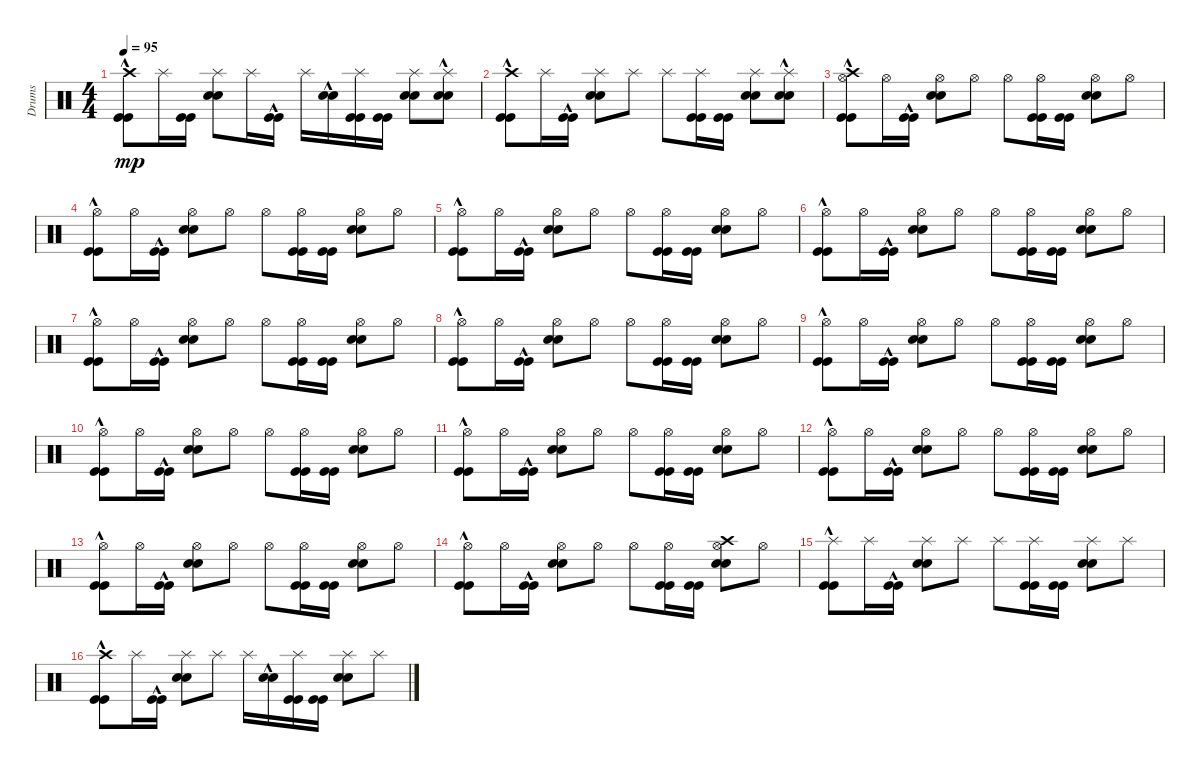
\track ("Drums" "Drums") {instrument percussion}
\staff {score}
\articulation defaults
\ts (4 4)
\tempo 95
\clef neutral
\ks c
("Kick (hit)"{hac} "Kick (hit)"{hac} "Crash high (hit)").8{dy mp} "Splash (hit)".16 ("Kick (hit)" "Kick (hit)").16 ("Snare (hit) 2" "Snare (hit) 2" "Splash (hit)").8 "Splash (hit)".16 ("Kick (hit)"{hac} "Kick (hit)"{hac}).16 "Splash (hit)".16 ("Snare (hit) 2"{hac} "Snare (hit) 2"{hac}).16 ("Kick (hit)" "Kick (hit)" "Splash (hit)").16 ("Kick (hit)" "Kick (hit)").16 ("Snare (hit) 2" "Snare (hit) 2" "Splash (hit)").8 ("Snare (hit) 2"{hac} "Snare (hit) 2"{hac} "Splash (hit)").8 |
("Kick (hit)"{hac} "Kick (hit)"{hac} "Crash high (hit)").8 "Splash (hit)".16 ("Kick (hit)"{hac} "Kick (hit)"{hac}).16 ("Snare (hit) 2" "Snare (hit) 2" "Splash (hit)").8 "Splash (hit)".8 "Splash (hit)".8 ("Kick (hit)" "Kick (hit)" "Splash (hit)").16 ("Kick (hit)" "Kick (hit)").16 ("Snare (hit) 2" "Snare (hit) 2" "Splash (hit)").8 ("Snare (hit) 2"{hac} "Snare (hit) 2"{hac} "Splash (hit)").8 |
("Kick (hit)"{hac} "Kick (hit)"{hac} "Hi-Hat (open)" "Crash high (hit)").8 "Hi-Hat (open)".16 ("Kick (hit)"{hac} "Kick (hit)"{hac}).16 ("Snare (hit) 2" "Snare (hit) 2" "Hi-Hat (open)").8 "Hi-Hat (open)".8 "Hi-Hat (open)".8 ("Kick (hit)" "Kick (hit)" "Hi-Hat (open)").16 ("Kick (hit)" "Kick (hit)").16 ("Snare (hit) 2" "Snare (hit) 2" "Hi-Hat (open)").8 "Hi-Hat (open)".8 |
("Kick (hit)"{hac} "Kick (hit)"{hac} "Hi-Hat (open)").8 "Hi-Hat (open)".16 ("Kick (hit)"{hac} "Kick (hit)"{hac}).16 ("Snare (hit) 2" "Snare (hit) 2" "Hi-Hat (open)").8 "Hi-Hat (open)".8 "Hi-Hat (open)".8 ("Kick (hit)" "Kick (hit)" "Hi-Hat (open)").16 ("Kick (hit)" "Kick (hit)").16 ("Snare (hit) 2" "Snare (hit) 2" "Hi-Hat (open)").8 "Hi-Hat (open)".8 |
("Kick (hit)"{hac} "Kick (hit)"{hac} "Hi-Hat (open)").8 "Hi-Hat (open)".16 ("Kick (hit)"{hac} "Kick (hit)"{hac}).16 ("Snare (hit) 2" "Snare (hit) 2" "Hi-Hat (open)").8 "Hi-Hat (open)".8 "Hi-Hat (open)".8 ("Kick (hit)" "Kick (hit)" "Hi-Hat (open)").16 ("Kick (hit)" "Kick (hit)").16 ("Snare (hit) 2" "Snare (hit) 2" "Hi-Hat (open)").8 "Hi-Hat (open)".8 |
("Kick (hit)"{hac} "Kick (hit)"{hac} "Hi-Hat (open)").8 "Hi-Hat (open)".16 ("Kick (hit)"{hac} "Kick (hit)"{hac}).16 ("Snare (hit) 2" "Snare (hit) 2" "Hi-Hat (open)").8 "Hi-Hat (open)".8 "Hi-Hat (open)".8 ("Kick (hit)" "Kick (hit)" "Hi-Hat (open)").16 ("Kick (hit)" "Kick (hit)").16 ("Snare (hit) 2" "Snare (hit) 2" "Hi-Hat (open)").8 "Hi-Hat (open)".8 |
("Kick (hit)"{hac} "Kick (hit)"{hac} "Hi-Hat (open)").8 "Hi-Hat (open)".16 ("Kick (hit)"{hac} "Kick (hit)"{hac}).16 ("Snare (hit) 2" "Snare (hit) 2" "Hi-Hat (open)").8 "Hi-Hat (open)".8 "Hi-Hat (open)".8 ("Kick (hit)" "Kick (hit)" "Hi-Hat (open)").16 ("Kick (hit)" "Kick (hit)").16 ("Snare (hit) 2" "Snare (hit) 2" "Hi-Hat (open)").8 "Hi-Hat (open)".8 |
("Kick (hit)"{hac} "Kick (hit)"{hac} "Hi-Hat (open)").8 "Hi-Hat (open)".16 ("Kick (hit)"{hac} "Kick (hit)"{hac}).16 ("Snare (hit) 2" "Snare (hit) 2" "Hi-Hat (open)").8 "Hi-Hat (open)".8 "Hi-Hat (open)".8 ("Kick (hit)" "Kick (hit)" "Hi-Hat (open)").16 ("Kick (hit)" "Kick (hit)").16 ("Snare (hit) 2" "Snare (hit) 2" "Hi-Hat (open)").8 "Hi-Hat (open)".8 |
("Kick (hit)"{hac} "Kick (hit)"{hac} "Hi-Hat (open)").8 "Hi-Hat (open)".16 ("Kick (hit)"{hac} "Kick (hit)"{hac}).16 ("Snare (hit) 2" "Snare (hit) 2" "Hi-Hat (open)").8 "Hi-Hat (open)".8 "Hi-Hat (open)".8 ("Kick (hit)" "Kick (hit)" "Hi-Hat (open)").16 ("Kick (hit)" "Kick (hit)").16 ("Snare (hit) 2" "Snare (hit) 2" "Hi-Hat (open)").8 "Hi-Hat (open)".8 |
("Kick (hit)"{hac} "Kick (hit)"{hac} "Hi-Hat (open)").8 "Hi-Hat (open)".16 ("Kick (hit)"{hac} "Kick (hit)"{hac}).16 ("Snare (hit) 2" "Snare (hit) 2" "Hi-Hat (open)").8 "Hi-Hat (open)".8 "Hi-Hat (open)".8 ("Kick (hit)" "Kick (hit)" "Hi-Hat (open)").16 ("Kick (hit)" "Kick (hit)").16 ("Snare (hit) 2" "Snare (hit) 2" "Hi-Hat (open)").8 "Hi-Hat (open)".8 |
("Kick (hit)"{hac} "Kick (hit)"{hac} "Hi-Hat (open)").8 "Hi-Hat (open)".16 ("Kick (hit)"{hac} "Kick (hit)"{hac}).16 ("Snare (hit) 2" "Snare (hit) 2" "Hi-Hat (open)").8 "Hi-Hat (open)".8 "Hi-Hat (open)".8 ("Kick (hit)" "Kick (hit)" "Hi-Hat (open)").16 ("Kick (hit)" "Kick (hit)").16 ("Snare (hit) 2" "Snare (hit) 2" "Hi-Hat (open)").8 "Hi-Hat (open)".8 |
("Kick (hit)"{hac} "Kick (hit)"{hac} "Hi-Hat (open)").8 "Hi-Hat (open)".16 ("Kick (hit)"{hac} "Kick (hit)"{hac}).16 ("Snare (hit) 2" "Snare (hit) 2" "Hi-Hat (open)").8 "Hi-Hat (open)".8 "Hi-Hat (open)".8 ("Kick (hit)" "Kick (hit)" "Hi-Hat (open)").16 ("Kick (hit)" "Kick (hit)").16 ("Snare (hit) 2" "Snare (hit) 2" "Hi-Hat (open)").8 "Hi-Hat (open)".8 |
("Kick (hit)"{hac} "Kick (hit)"{hac} "Hi-Hat (open)").8 "Hi-Hat (open)".16 ("Kick (hit)"{hac} "Kick (hit)"{hac}).16 ("Snare (hit) 2" "Snare (hit) 2" "Hi-Hat (open)").8 "Hi-Hat (open)".8 "Hi-Hat (open)".8 ("Kick (hit)" "Kick (hit)" "Hi-Hat (open)").16 ("Kick (hit)" "Kick (hit)").16 ("Snare (hit) 2" "Snare (hit) 2" "Hi-Hat (open)").8 "Hi-Hat (open)".8 |
("Kick (hit)"{hac} "Kick (hit)"{hac} "Hi-Hat (open)").8 "Hi-Hat (open)".16 ("Kick (hit)"{hac} "Kick (hit)"{hac}).16 ("Snare (hit) 2" "Snare (hit) 2" "Hi-Hat (open)").8 "Hi-Hat (open)".8 "Hi-Hat (open)".8 ("Kick (hit)" "Kick (hit)" "Hi-Hat (open)").16 ("Kick (hit)" "Kick (hit)").16 ("Snare (hit) 2" "Snare (hit) 2" "Hi-Hat (open)" "Crash high (hit)").8 "Hi-Hat (open)".8 |
("Kick (hit)"{hac} "Kick (hit)"{hac} "Splash (hit)").8 "Splash (hit)".16 ("Kick (hit)"{hac} "Kick (hit)"{hac}).16 ("Snare (hit) 2" "Snare (hit) 2" "Splash (hit)").8 "Splash (hit)".8 "Splash (hit)".8 ("Kick (hit)" "Kick (hit)" "Splash (hit)").16 ("Kick (hit)" "Kick (hit)").16 ("Snare (hit) 2" "Snare (hit) 2" "Splash (hit)").8 "Splash (hit)".8 |
("Kick (hit)"{hac} "Kick (hit)"{hac} "Crash high (hit)").8 "Splash (hit)".16 ("Kick (hit)"{hac} "Kick (hit)"{hac}).16 ("Snare (hit) 2" "Snare (hit) 2" "Splash (hit)").8 "Splash (hit)".8 "Splash (hit)".16 ("Snare (hit) 2"{hac} "Snare (hit) 2"{hac}).16 ("Kick (hit)" "Kick (hit)" "Splash (hit)").16 ("Kick (hit)" "Kick (hit)").16 ("Snare (hit) 2" "Snare (hit) 2" "Splash (hit)").8 "Splash (hit)".8
